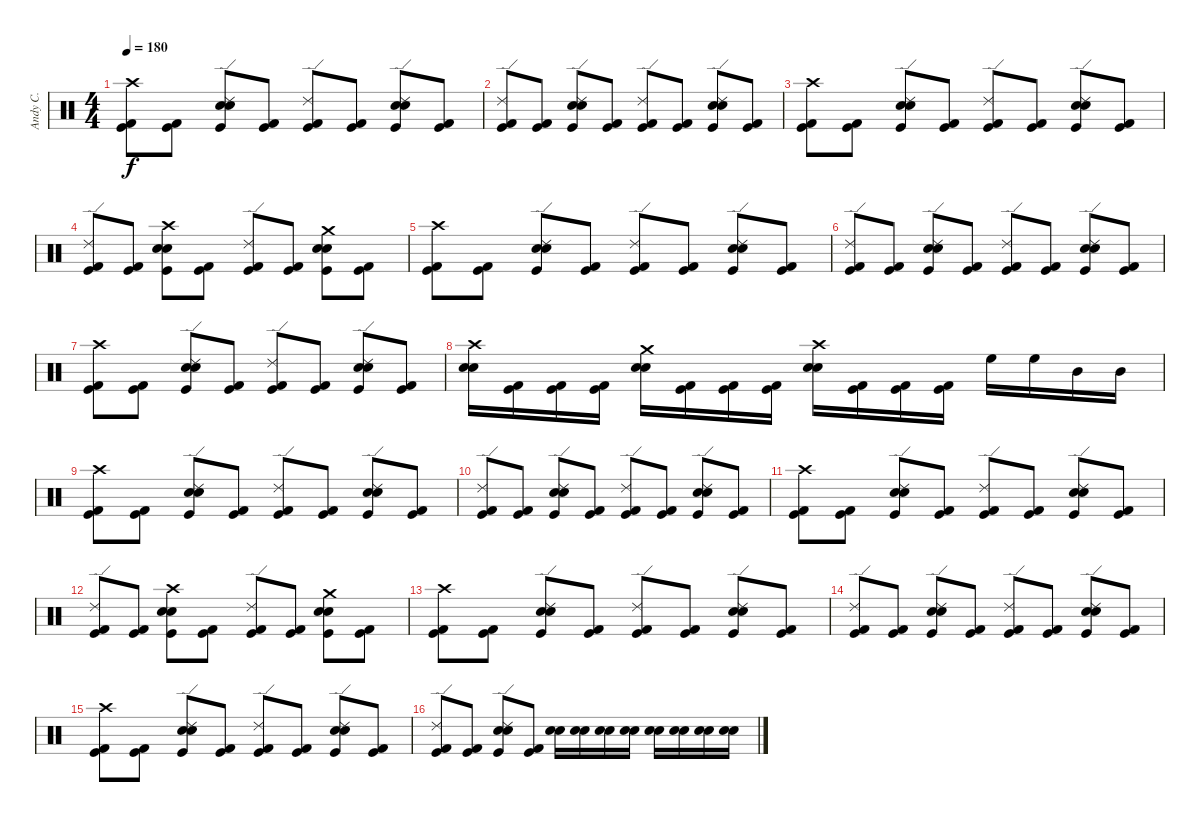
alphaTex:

\track ("Andy C." "Andy C.") {instrument percussion}
\staff {score}
\articulation defaults
\ts (4 4)
\tempo 180
\clef neutral
\ks c
("Crash high (hit)" "Kick (hit)" "Kick (hit) 2").8{dy f} ("Kick (hit)" "Kick (hit) 2").8 ("Ride (edge) 2" "Kick (hit)" "Snare (hit) 2" "Electric Snare (hit)").8 ("Kick (hit)" "Kick (hit) 2").8 ("Ride (edge) 2" "Kick (hit)" "Kick (hit) 2").8 ("Kick (hit)" "Kick (hit) 2").8 ("Ride (edge) 2" "Kick (hit)" "Snare (hit) 2" "Electric Snare (hit)").8 ("Kick (hit)" "Kick (hit) 2").8 |
("Ride (edge) 2" "Kick (hit)" "Kick (hit) 2").8 ("Kick (hit)" "Kick (hit) 2").8 ("Ride (edge) 2" "Kick (hit)" "Snare (hit) 2" "Electric Snare (hit)").8 ("Kick (hit)" "Kick (hit) 2").8 ("Ride (edge) 2" "Kick (hit)" "Kick (hit) 2").8 ("Kick (hit)" "Kick (hit) 2").8 ("Ride (edge) 2" "Kick (hit)" "Snare (hit) 2" "Electric Snare (hit)").8 ("Kick (hit)" "Kick (hit) 2").8 |
("Crash high (hit)" "Kick (hit)" "Kick (hit) 2").8 ("Kick (hit)" "Kick (hit) 2").8 ("Ride (edge) 2" "Kick (hit)" "Snare (hit) 2" "Electric Snare (hit)").8 ("Kick (hit)" "Kick (hit) 2").8 ("Ride (edge) 2" "Kick (hit)" "Kick (hit) 2").8 ("Kick (hit)" "Kick (hit) 2").8 ("Ride (edge) 2" "Kick (hit)" "Snare (hit) 2" "Electric Snare (hit)").8 ("Kick (hit)" "Kick (hit) 2").8 |
("Ride (edge) 2" "Kick (hit)" "Kick (hit) 2").8 ("Kick (hit)" "Kick (hit) 2").8 ("Crash high (hit)" "Kick (hit)" "Snare (hit) 2" "Electric Snare (hit)").8 ("Kick (hit)" "Kick (hit) 2").8 ("Ride (edge) 2" "Kick (hit)" "Kick (hit) 2").8 ("Kick (hit)" "Kick (hit) 2").8 ("Crash medium (hit)" "Kick (hit)" "Snare (hit) 2" "Electric Snare (hit)").8 ("Kick (hit)" "Kick (hit) 2").8 |
("Crash high (hit)" "Kick (hit)" "Kick (hit) 2").8 ("Kick (hit)" "Kick (hit) 2").8 ("Ride (edge) 2" "Kick (hit)" "Snare (hit) 2" "Electric Snare (hit)").8 ("Kick (hit)" "Kick (hit) 2").8 ("Ride (edge) 2" "Kick (hit)" "Kick (hit) 2").8 ("Kick (hit)" "Kick (hit) 2").8 ("Ride (edge) 2" "Kick (hit)" "Snare (hit) 2" "Electric Snare (hit)").8 ("Kick (hit)" "Kick (hit) 2").8 |
("Ride (edge) 2" "Kick (hit)" "Kick (hit) 2").8 ("Kick (hit)" "Kick (hit) 2").8 ("Ride (edge) 2" "Kick (hit)" "Snare (hit) 2" "Electric Snare (hit)").8 ("Kick (hit)" "Kick (hit) 2").8 ("Ride (edge) 2" "Kick (hit)" "Kick (hit) 2").8 ("Kick (hit)" "Kick (hit) 2").8 ("Ride (edge) 2" "Kick (hit)" "Snare (hit) 2" "Electric Snare (hit)").8 ("Kick (hit)" "Kick (hit) 2").8 |
("Crash high (hit)" "Kick (hit)" "Kick (hit) 2").8 ("Kick (hit)" "Kick (hit) 2").8 ("Ride (edge) 2" "Kick (hit)" "Snare (hit) 2" "Electric Snare (hit)").8 ("Kick (hit)" "Kick (hit) 2").8 ("Ride (edge) 2" "Kick (hit)" "Kick (hit) 2").8 ("Kick (hit)" "Kick (hit) 2").8 ("Ride (edge) 2" "Kick (hit)" "Snare (hit) 2" "Electric Snare (hit)").8 ("Kick (hit)" "Kick (hit) 2").8 |
("Crash high (hit)" "Snare (hit) 2" "Electric Snare (hit)").16 ("Kick (hit)" "Kick (hit) 2").16 ("Kick (hit)" "Kick (hit) 2").16 ("Kick (hit)" "Kick (hit) 2").16 ("Crash medium (hit)" "Snare (hit) 2" "Electric Snare (hit)").16 ("Kick (hit)" "Kick (hit) 2").16 ("Kick (hit)" "Kick (hit) 2").16 ("Kick (hit)" "Kick (hit) 2").16 ("Crash high (hit)" "Snare (hit) 2" "Electric Snare (hit)").16 ("Kick (hit)" "Kick (hit) 2").16 ("Kick (hit)" "Kick (hit) 2").16 ("Kick (hit)" "Kick (hit) 2").16 "High Floor Tom (hit)".16 "High Floor Tom (hit)".16 "Mid Tom (hit)".16 "Mid Tom (hit)".16 |
("Crash high (hit)" "Kick (hit)" "Kick (hit) 2").8 ("Kick (hit)" "Kick (hit) 2").8 ("Ride (edge) 2" "Kick (hit)" "Snare (hit) 2" "Electric Snare (hit)").8 ("Kick (hit)" "Kick (hit) 2").8 ("Ride (edge) 2" "Kick (hit)" "Kick (hit) 2").8 ("Kick (hit)" "Kick (hit) 2").8 ("Ride (edge) 2" "Kick (hit)" "Snare (hit) 2" "Electric Snare (hit)").8 ("Kick (hit)" "Kick (hit) 2").8 |
("Ride (edge) 2" "Kick (hit)" "Kick (hit) 2").8 ("Kick (hit)" "Kick (hit) 2").8 ("Ride (edge) 2" "Kick (hit)" "Snare (hit) 2" "Electric Snare (hit)").8 ("Kick (hit)" "Kick (hit) 2").8 ("Ride (edge) 2" "Kick (hit)" "Kick (hit) 2").8 ("Kick (hit)" "Kick (hit) 2").8 ("Ride (edge) 2" "Kick (hit)" "Snare (hit) 2" "Electric Snare (hit)").8 ("Kick (hit)" "Kick (hit) 2").8 |
("Crash high (hit)" "Kick (hit)" "Kick (hit) 2").8 ("Kick (hit)" "Kick (hit) 2").8 ("Ride (edge) 2" "Kick (hit)" "Snare (hit) 2" "Electric Snare (hit)").8 ("Kick (hit)" "Kick (hit) 2").8 ("Ride (edge) 2" "Kick (hit)" "Kick (hit) 2").8 ("Kick (hit)" "Kick (hit) 2").8 ("Ride (edge) 2" "Kick (hit)" "Snare (hit) 2" "Electric Snare (hit)").8 ("Kick (hit)" "Kick (hit) 2").8 |
("Ride (edge) 2" "Kick (hit)" "Kick (hit) 2").8 ("Kick (hit)" "Kick (hit) 2").8 ("Crash high (hit)" "Kick (hit)" "Snare (hit) 2" "Electric Snare (hit)").8 ("Kick (hit)" "Kick (hit) 2").8 ("Ride (edge) 2" "Kick (hit)" "Kick (hit) 2").8 ("Kick (hit)" "Kick (hit) 2").8 ("Crash medium (hit)" "Kick (hit)" "Snare (hit) 2" "Electric Snare (hit)").8 ("Kick (hit)" "Kick (hit) 2").8 |
("Crash high (hit)" "Kick (hit)" "Kick (hit) 2").8 ("Kick (hit)" "Kick (hit) 2").8 ("Ride (edge) 2" "Kick (hit)" "Snare (hit) 2" "Electric Snare (hit)").8 ("Kick (hit)" "Kick (hit) 2").8 ("Ride (edge) 2" "Kick (hit)" "Kick (hit) 2").8 ("Kick (hit)" "Kick (hit) 2").8 ("Ride (edge) 2" "Kick (hit)" "Snare (hit) 2" "Electric Snare (hit)").8 ("Kick (hit)" "Kick (hit) 2").8 |
("Ride (edge) 2" "Kick (hit)" "Kick (hit) 2").8 ("Kick (hit)" "Kick (hit) 2").8 ("Ride (edge) 2" "Kick (hit)" "Snare (hit) 2" "Electric Snare (hit)").8 ("Kick (hit)" "Kick (hit) 2").8 ("Ride (edge) 2" "Kick (hit)" "Kick (hit) 2").8 ("Kick (hit)" "Kick (hit) 2").8 ("Ride (edge) 2" "Kick (hit)" "Snare (hit) 2" "Electric Snare (hit)").8 ("Kick (hit)" "Kick (hit) 2").8 |
("Crash high (hit)" "Kick (hit)" "Kick (hit) 2").8 ("Kick (hit)" "Kick (hit) 2").8 ("Ride (edge) 2" "Kick (hit)" "Snare (hit) 2" "Electric Snare (hit)").8 ("Kick (hit)" "Kick (hit) 2").8 ("Ride (edge) 2" "Kick (hit)" "Kick (hit) 2").8 ("Kick (hit)" "Kick (hit) 2").8 ("Ride (edge) 2" "Kick (hit)" "Snare (hit) 2" "Electric Snare (hit)").8 ("Kick (hit)" "Kick (hit) 2").8 |
("Ride (edge) 2" "Kick (hit)" "Kick (hit) 2").8 ("Kick (hit)" "Kick (hit) 2").8 ("Ride (edge) 2" "Kick (hit)" "Snare (hit) 2" "Electric Snare (hit)").8 ("Kick (hit)" "Kick (hit) 2").8 ("Snare (hit) 2" "Electric Snare (hit)").16 ("Snare (hit) 2" "Electric Snare (hit)").16 ("Snare (hit) 2" "Electric Snare (hit)").16 ("Snare (hit) 2" "Electric Snare (hit)").16 ("Snare (hit) 2" "Electric Snare (hit)").16 ("Snare (hit) 2" "Electric Snare (hit)").16 ("Snare (hit) 2" "Electric Snare (hit)").16 ("Snare (hit) 2" "Electric Snare (hit)").16
